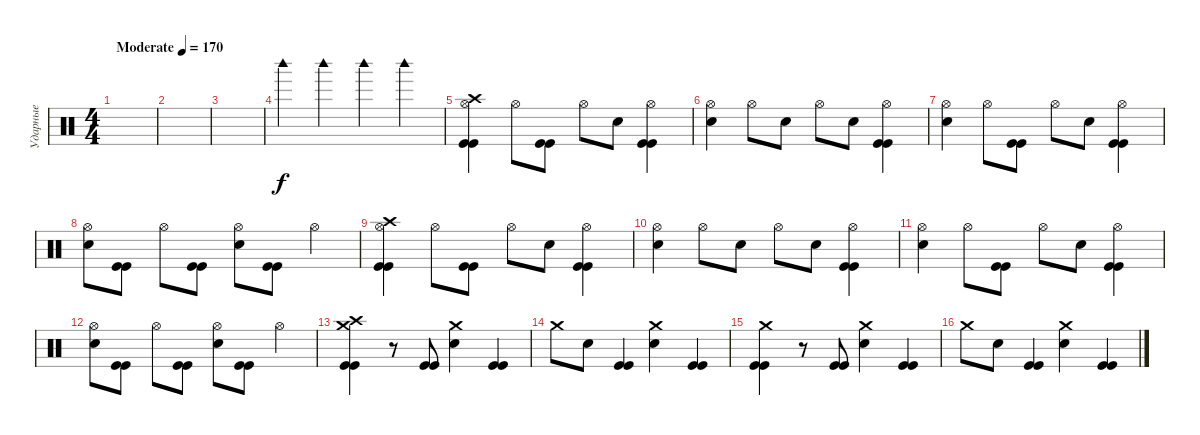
\track ("Ударные" "Ударные") {instrument percussion}
\staff {score}
\articulation defaults
\ts (4 4)
\tempo (170 "Moderate")
\clef neutral
\ks c
|
|
|
"Woodblock high (hit)".4 "Woodblock high (hit)".4 "Woodblock high (hit)".4 "Woodblock high (hit)".4 |
("Crash high (hit)" "Hi-Hat (open)" "Kick (hit)" "Kick (hit)").4 "Hi-Hat (open)".8 ("Kick (hit)" "Kick (hit)").8 "Hi-Hat (open)".8 "Electric Snare (hit)".8 ("Hi-Hat (open)" "Kick (hit)" "Kick (hit)").4 |
("Hi-Hat (open)" "Electric Snare (hit)").4 "Hi-Hat (open)".8 "Electric Snare (hit)".8 "Hi-Hat (open)".8 "Electric Snare (hit)".8 ("Hi-Hat (open)" "Kick (hit)" "Kick (hit)").4 |
("Hi-Hat (open)" "Electric Snare (hit)").4 "Hi-Hat (open)".8 ("Kick (hit)" "Kick (hit)").8 "Hi-Hat (open)".8 "Electric Snare (hit)".8 ("Hi-Hat (open)" "Kick (hit)" "Kick (hit)").4 |
("Hi-Hat (open)" "Electric Snare (hit)").8 ("Kick (hit)" "Kick (hit)").8 "Hi-Hat (open)".8 ("Kick (hit)" "Kick (hit)").8 ("Hi-Hat (open)" "Electric Snare (hit)").8 ("Kick (hit)" "Kick (hit)").8 "Hi-Hat (open)".4 |
("Crash high (hit)" "Hi-Hat (open)" "Kick (hit)" "Kick (hit)").4 "Hi-Hat (open)".8 ("Kick (hit)" "Kick (hit)").8 "Hi-Hat (open)".8 "Electric Snare (hit)".8 ("Hi-Hat (open)" "Kick (hit)" "Kick (hit)").4 |
("Hi-Hat (open)" "Electric Snare (hit)").4 "Hi-Hat (open)".8 "Electric Snare (hit)".8 "Hi-Hat (open)".8 "Electric Snare (hit)".8 ("Hi-Hat (open)" "Kick (hit)" "Kick (hit)").4 |
("Hi-Hat (open)" "Electric Snare (hit)").4 "Hi-Hat (open)".8 ("Kick (hit)" "Kick (hit)").8 "Hi-Hat (open)".8 "Electric Snare (hit)".8 ("Hi-Hat (open)" "Kick (hit)" "Kick (hit)").4 |
("Hi-Hat (open)" "Electric Snare (hit)").8 ("Kick (hit)" "Kick (hit)").8 "Hi-Hat (open)".8 ("Kick (hit)" "Kick (hit)").8 ("Hi-Hat (open)" "Electric Snare (hit)").8 ("Kick (hit)" "Kick (hit)").8 "Hi-Hat (open)".4 |
("Crash high (hit)" "Crash medium (hit)" "Kick (hit)" "Kick (hit)").4 r.8 ("Kick (hit)" "Kick (hit)").8 ("Crash medium (hit)" "Electric Snare (hit)").4 ("Kick (hit)" "Kick (hit)").4 |
"Crash medium (hit)".8 "Electric Snare (hit)".8 ("Kick (hit)" "Kick (hit)").4 ("Crash medium (hit)" "Electric Snare (hit)").4 ("Kick (hit)" "Kick (hit)").4 |
("Crash medium (hit)" "Kick (hit)" "Kick (hit)").4 r.8 ("Kick (hit)" "Kick (hit)").8 ("Crash medium (hit)" "Electric Snare (hit)").4 ("Kick (hit)" "Kick (hit)").4 |
"Crash medium (hit)".8 "Electric Snare (hit)".8 ("Kick (hit)" "Kick (hit)").4 ("Crash medium (hit)" "Electric Snare (hit)").4 ("Kick (hit)" "Kick (hit)").4
